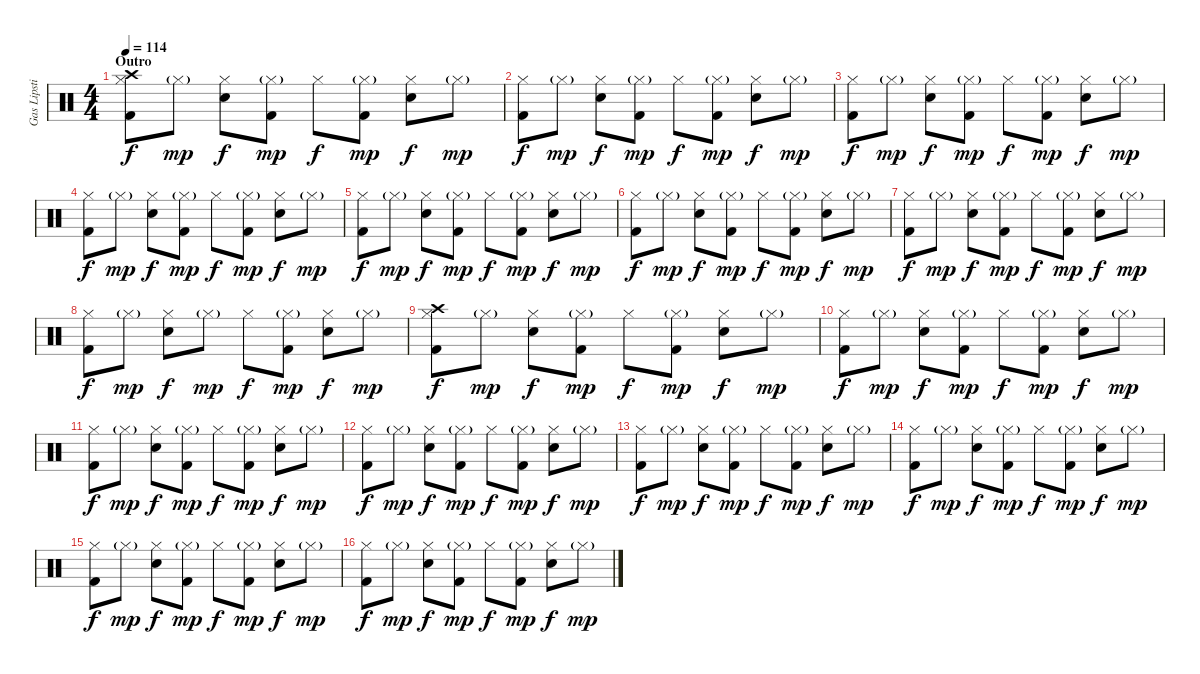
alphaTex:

\track ("Gas Lipstick (Drums)" "Gas Lipsti") {instrument percussion}
\staff {score}
\articulation defaults
\ts (4 4)
\section ("" "Outro")
\tempo 114
\clef neutral
\ks c
("Crash high (hit)" "Hi-Hat (closed)" "Kick (hit) 2").8{dy f} "Hi-Hat (closed)"{g}.8{dy mp} ("Hi-Hat (closed)" "Snare (hit) 2").8{dy f} ("Hi-Hat (closed)"{g} "Kick (hit) 2").8{dy mp} "Hi-Hat (closed)".8{dy f} ("Hi-Hat (closed)"{g} "Kick (hit) 2").8{dy mp} ("Hi-Hat (closed)" "Snare (hit) 2").8{dy f} "Hi-Hat (closed)"{g}.8{dy mp} |
("Hi-Hat (closed)" "Kick (hit) 2").8{dy f} "Hi-Hat (closed)"{g}.8{dy mp} ("Hi-Hat (closed)" "Snare (hit) 2").8{dy f} ("Hi-Hat (closed)"{g} "Kick (hit) 2").8{dy mp} "Hi-Hat (closed)".8{dy f} ("Hi-Hat (closed)"{g} "Kick (hit) 2").8{dy mp} ("Hi-Hat (closed)" "Snare (hit) 2").8{dy f} "Hi-Hat (closed)"{g}.8{dy mp} |
("Hi-Hat (closed)" "Kick (hit) 2").8{dy f} "Hi-Hat (closed)"{g}.8{dy mp} ("Hi-Hat (closed)" "Snare (hit) 2").8{dy f} ("Hi-Hat (closed)"{g} "Kick (hit) 2").8{dy mp} "Hi-Hat (closed)".8{dy f} ("Hi-Hat (closed)"{g} "Kick (hit) 2").8{dy mp} ("Hi-Hat (closed)" "Snare (hit) 2").8{dy f} "Hi-Hat (closed)"{g}.8{dy mp} |
("Hi-Hat (closed)" "Kick (hit) 2").8{dy f} "Hi-Hat (closed)"{g}.8{dy mp} ("Hi-Hat (closed)" "Snare (hit) 2").8{dy f} ("Hi-Hat (closed)"{g} "Kick (hit) 2").8{dy mp} "Hi-Hat (closed)".8{dy f} ("Hi-Hat (closed)"{g} "Kick (hit) 2").8{dy mp} ("Hi-Hat (closed)" "Snare (hit) 2").8{dy f} "Hi-Hat (closed)"{g}.8{dy mp} |
("Hi-Hat (closed)" "Kick (hit) 2").8{dy f} "Hi-Hat (closed)"{g}.8{dy mp} ("Hi-Hat (closed)" "Snare (hit) 2").8{dy f} ("Hi-Hat (closed)"{g} "Kick (hit) 2").8{dy mp} "Hi-Hat (closed)".8{dy f} ("Hi-Hat (closed)"{g} "Kick (hit) 2").8{dy mp} ("Hi-Hat (closed)" "Snare (hit) 2").8{dy f} "Hi-Hat (closed)"{g}.8{dy mp} |
("Hi-Hat (closed)" "Kick (hit) 2").8{dy f} "Hi-Hat (closed)"{g}.8{dy mp} ("Hi-Hat (closed)" "Snare (hit) 2").8{dy f} ("Hi-Hat (closed)"{g} "Kick (hit) 2").8{dy mp} "Hi-Hat (closed)".8{dy f} ("Hi-Hat (closed)"{g} "Kick (hit) 2").8{dy mp} ("Hi-Hat (closed)" "Snare (hit) 2").8{dy f} "Hi-Hat (closed)"{g}.8{dy mp} |
("Hi-Hat (closed)" "Kick (hit) 2").8{dy f} "Hi-Hat (closed)"{g}.8{dy mp} ("Hi-Hat (closed)" "Snare (hit) 2").8{dy f} ("Hi-Hat (closed)"{g} "Kick (hit) 2").8{dy mp} "Hi-Hat (closed)".8{dy f} ("Hi-Hat (closed)"{g} "Kick (hit) 2").8{dy mp} ("Hi-Hat (closed)" "Snare (hit) 2").8{dy f} "Hi-Hat (closed)"{g}.8{dy mp} |
("Hi-Hat (closed)" "Kick (hit) 2").8{dy f} "Hi-Hat (closed)"{g}.8{dy mp} ("Hi-Hat (closed)" "Snare (hit) 2").8{dy f} "Hi-Hat (closed)"{g}.8{dy mp} "Hi-Hat (closed)".8{dy f} ("Hi-Hat (closed)"{g} "Kick (hit) 2").8{dy mp} ("Hi-Hat (closed)" "Snare (hit) 2").8{dy f} "Hi-Hat (closed)"{g}.8{dy mp} |
("Crash high (hit)" "Hi-Hat (closed)" "Kick (hit) 2").8{dy f volume 6} "Hi-Hat (closed)"{g}.8{dy mp} ("Hi-Hat (closed)" "Snare (hit) 2").8{dy f} ("Hi-Hat (closed)"{g} "Kick (hit) 2").8{dy mp} "Hi-Hat (closed)".8{dy f} ("Hi-Hat (closed)"{g} "Kick (hit) 2").8{dy mp} ("Hi-Hat (closed)" "Snare (hit) 2").8{dy f} "Hi-Hat (closed)"{g}.8{dy mp} |
("Hi-Hat (closed)" "Kick (hit) 2").8{dy f} "Hi-Hat (closed)"{g}.8{dy mp} ("Hi-Hat (closed)" "Snare (hit) 2").8{dy f} ("Hi-Hat (closed)"{g} "Kick (hit) 2").8{dy mp} "Hi-Hat (closed)".8{dy f} ("Hi-Hat (closed)"{g} "Kick (hit) 2").8{dy mp} ("Hi-Hat (closed)" "Snare (hit) 2").8{dy f} "Hi-Hat (closed)"{g}.8{dy mp} |
("Hi-Hat (closed)" "Kick (hit) 2").8{dy f} "Hi-Hat (closed)"{g}.8{dy mp} ("Hi-Hat (closed)" "Snare (hit) 2").8{dy f} ("Hi-Hat (closed)"{g} "Kick (hit) 2").8{dy mp} "Hi-Hat (closed)".8{dy f} ("Hi-Hat (closed)"{g} "Kick (hit) 2").8{dy mp} ("Hi-Hat (closed)" "Snare (hit) 2").8{dy f} "Hi-Hat (closed)"{g}.8{dy mp} |
("Hi-Hat (closed)" "Kick (hit) 2").8{dy f} "Hi-Hat (closed)"{g}.8{dy mp} ("Hi-Hat (closed)" "Snare (hit) 2").8{dy f} ("Hi-Hat (closed)"{g} "Kick (hit) 2").8{dy mp} "Hi-Hat (closed)".8{dy f} ("Hi-Hat (closed)"{g} "Kick (hit) 2").8{dy mp} ("Hi-Hat (closed)" "Snare (hit) 2").8{dy f} "Hi-Hat (closed)"{g}.8{dy mp} |
("Hi-Hat (closed)" "Kick (hit) 2").8{dy f volume 0} "Hi-Hat (closed)"{g}.8{dy mp} ("Hi-Hat (closed)" "Snare (hit) 2").8{dy f} ("Hi-Hat (closed)"{g} "Kick (hit) 2").8{dy mp} "Hi-Hat (closed)".8{dy f} ("Hi-Hat (closed)"{g} "Kick (hit) 2").8{dy mp} ("Hi-Hat (closed)" "Snare (hit) 2").8{dy f} "Hi-Hat (closed)"{g}.8{dy mp} |
("Hi-Hat (closed)" "Kick (hit) 2").8{dy f} "Hi-Hat (closed)"{g}.8{dy mp} ("Hi-Hat (closed)" "Snare (hit) 2").8{dy f} ("Hi-Hat (closed)"{g} "Kick (hit) 2").8{dy mp} "Hi-Hat (closed)".8{dy f} ("Hi-Hat (closed)"{g} "Kick (hit) 2").8{dy mp} ("Hi-Hat (closed)" "Snare (hit) 2").8{dy f} "Hi-Hat (closed)"{g}.8{dy mp} |
("Hi-Hat (closed)" "Kick (hit) 2").8{dy f} "Hi-Hat (closed)"{g}.8{dy mp} ("Hi-Hat (closed)" "Snare (hit) 2").8{dy f} ("Hi-Hat (closed)"{g} "Kick (hit) 2").8{dy mp} "Hi-Hat (closed)".8{dy f} ("Hi-Hat (closed)"{g} "Kick (hit) 2").8{dy mp} ("Hi-Hat (closed)" "Snare (hit) 2").8{dy f} "Hi-Hat (closed)"{g}.8{dy mp} |
("Hi-Hat (closed)" "Kick (hit) 2").8{dy f} "Hi-Hat (closed)"{g}.8{dy mp} ("Hi-Hat (closed)" "Snare (hit) 2").8{dy f} ("Hi-Hat (closed)"{g} "Kick (hit) 2").8{dy mp} "Hi-Hat (closed)".8{dy f} ("Hi-Hat (closed)"{g} "Kick (hit) 2").8{dy mp} ("Hi-Hat (closed)" "Snare (hit) 2").8{dy f} "Hi-Hat (closed)"{g}.8{dy mp}
